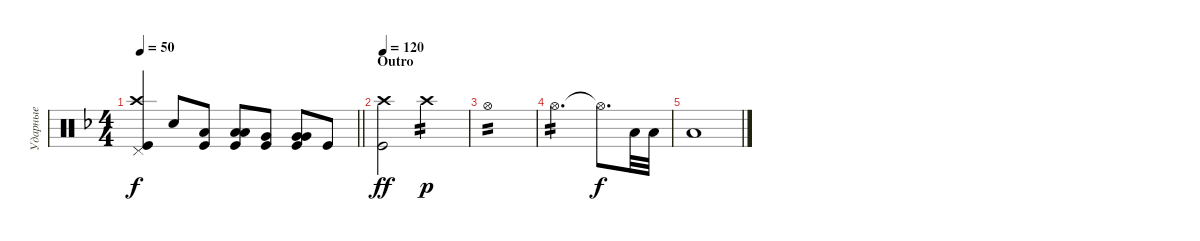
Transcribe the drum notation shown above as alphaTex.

\track ("Ударные" "Ударные") {instrument percussion}
\staff {score}
\articulation defaults
\ts (4 4)
\tempo 50
\clef neutral
\barLineRight lightlight
\ks dminor
("Kick (hit)" "Crash high (hit)" "Pedal Hi-Hat (hit)").4{dy f} "Snare (hit) 2".8{bd 240} ("Kick (hit)" "Low Tom (hit)").8{bd 240} ("Kick (hit)" "Low Tom (hit)" "Low Tom (hit)").8{bd 240} ("Kick (hit)" "Very Low Tom (hit)").8{bd 240} ("Kick (hit)" "Very Low Tom (hit)" "Very Low Tom (hit)").8 "Kick (hit)".8 |
\section ("" "Outro")
\tempo 120
("Kick (hit)" "Crash high (hit)").2{dy ff} "Crash high (hit)".2{tp 2 dy p} |
"Hi-Hat (open)".1{tp 2} |
"Hi-Hat (open)".2{d tp 2} "Hi-Hat (open)"{t}.8{d dy f} "Low Tom (hit)".32 "Low Tom (hit)".32 |
"Low Tom (hit)".1
